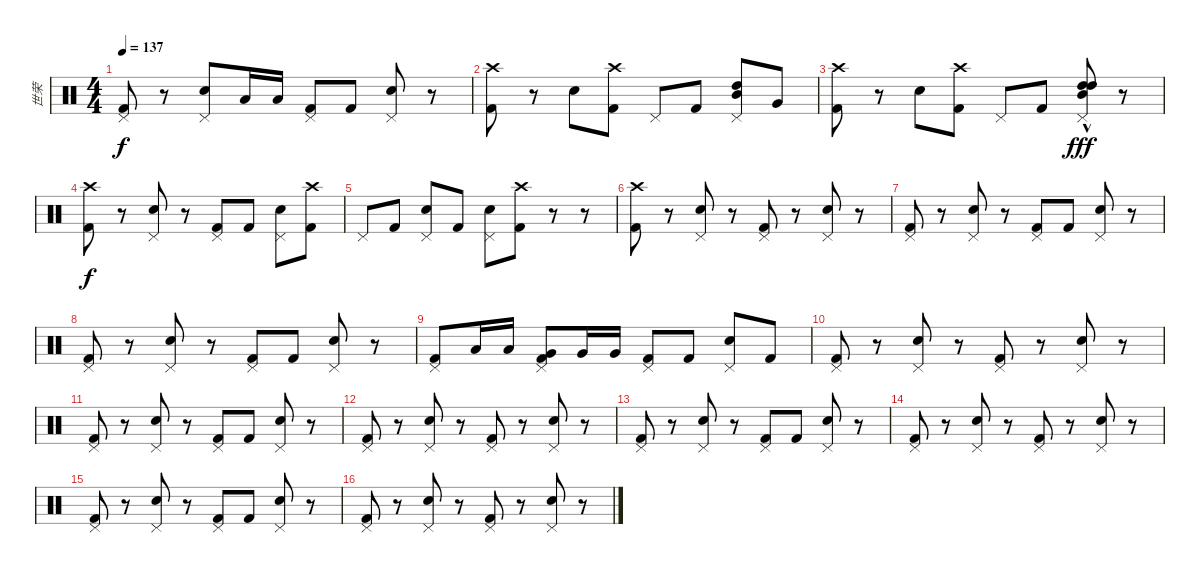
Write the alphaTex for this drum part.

\track ("世荣" "世荣") {instrument percussion}
\staff {score}
\articulation defaults
\ts (4 4)
\tempo 137
\clef neutral
\ks c
("Pedal Hi-Hat (hit)" "Kick (hit) 2").8{dy f} r.8 ("Pedal Hi-Hat (hit)" "Electric Snare (hit)").8 "Low Tom (hit)".16 "Low Tom (hit)".16 ("Pedal Hi-Hat (hit)" "Kick (hit) 2").8 "Kick (hit) 2".8 ("Pedal Hi-Hat (hit)" "Electric Snare (hit)").8 r.8 |
("Crash high (hit)" "Kick (hit) 2").8 r.8 "Electric Snare (hit)".8 ("Crash high (hit)" "Kick (hit) 2").8 "Pedal Hi-Hat (hit)".8 "Kick (hit) 2".8 ("Pedal Hi-Hat (hit)" "Mid Tom (hit)" "High Tom (hit)").8 "Very Low Tom (hit)".8 |
("Crash high (hit)" "Kick (hit) 2").8 r.8 "Electric Snare (hit)".8 ("Crash high (hit)" "Kick (hit) 2").8 "Pedal Hi-Hat (hit)".8 "Kick (hit) 2".8 ("Pedal Hi-Hat (hit)" "High Tom (hit)"{hac} "High Tom (hit)"{hac} "Mid Tom (hit)"{hac}).8{dy fff} r.8 |
("Crash high (hit)" "Kick (hit) 2").8{dy f} r.8 ("Pedal Hi-Hat (hit)" "Electric Snare (hit)").8 r.8 ("Pedal Hi-Hat (hit)" "Kick (hit) 2").8 "Kick (hit) 2".8 ("Pedal Hi-Hat (hit)" "Electric Snare (hit)").8 ("Crash high (hit)" "Kick (hit) 2").8 |
"Pedal Hi-Hat (hit)".8 "Kick (hit) 2".8 ("Pedal Hi-Hat (hit)" "Electric Snare (hit)").8 "Kick (hit) 2".8 ("Pedal Hi-Hat (hit)" "Electric Snare (hit)").8 ("Crash high (hit)" "Kick (hit) 2").8 r.8 r.8 |
("Crash high (hit)" "Kick (hit) 2").8 r.8 ("Pedal Hi-Hat (hit)" "Electric Snare (hit)").8 r.8 ("Pedal Hi-Hat (hit)" "Kick (hit) 2").8 r.8 ("Pedal Hi-Hat (hit)" "Electric Snare (hit)").8 r.8 |
("Pedal Hi-Hat (hit)" "Kick (hit) 2").8 r.8 ("Pedal Hi-Hat (hit)" "Electric Snare (hit)").8 r.8 ("Pedal Hi-Hat (hit)" "Kick (hit) 2").8 "Kick (hit) 2".8 ("Pedal Hi-Hat (hit)" "Electric Snare (hit)").8 r.8 |
("Pedal Hi-Hat (hit)" "Kick (hit) 2").8 r.8 ("Pedal Hi-Hat (hit)" "Electric Snare (hit)").8 r.8 ("Pedal Hi-Hat (hit)" "Kick (hit) 2").8 "Kick (hit) 2".8 ("Pedal Hi-Hat (hit)" "Electric Snare (hit)").8 r.8 |
("Pedal Hi-Hat (hit)" "Kick (hit) 2").8 "Low Tom (hit)".16 "Low Tom (hit)".16 ("Pedal Hi-Hat (hit)" "Very Low Tom (hit)" "Kick (hit) 2").8 "Very Low Tom (hit)".16 "Very Low Tom (hit)".16 ("Pedal Hi-Hat (hit)" "Kick (hit) 2").8 "Kick (hit) 2".8 ("Pedal Hi-Hat (hit)" "Electric Snare (hit)").8 "Kick (hit) 2".8 |
("Pedal Hi-Hat (hit)" "Kick (hit) 2").8 r.8 ("Pedal Hi-Hat (hit)" "Electric Snare (hit)").8 r.8 ("Pedal Hi-Hat (hit)" "Kick (hit) 2").8 r.8 ("Pedal Hi-Hat (hit)" "Electric Snare (hit)").8 r.8 |
("Pedal Hi-Hat (hit)" "Kick (hit) 2").8 r.8 ("Pedal Hi-Hat (hit)" "Electric Snare (hit)").8 r.8 ("Pedal Hi-Hat (hit)" "Kick (hit) 2").8 "Kick (hit) 2".8 ("Pedal Hi-Hat (hit)" "Electric Snare (hit)").8 r.8 |
("Pedal Hi-Hat (hit)" "Kick (hit) 2").8 r.8 ("Pedal Hi-Hat (hit)" "Electric Snare (hit)").8 r.8 ("Pedal Hi-Hat (hit)" "Kick (hit) 2").8 r.8 ("Pedal Hi-Hat (hit)" "Electric Snare (hit)").8 r.8 |
("Pedal Hi-Hat (hit)" "Kick (hit) 2").8 r.8 ("Pedal Hi-Hat (hit)" "Electric Snare (hit)").8 r.8 ("Pedal Hi-Hat (hit)" "Kick (hit) 2").8 "Kick (hit) 2".8 ("Pedal Hi-Hat (hit)" "Electric Snare (hit)").8 r.8 |
("Pedal Hi-Hat (hit)" "Kick (hit) 2").8 r.8 ("Pedal Hi-Hat (hit)" "Electric Snare (hit)").8 r.8 ("Pedal Hi-Hat (hit)" "Kick (hit) 2").8 r.8 ("Pedal Hi-Hat (hit)" "Electric Snare (hit)").8 r.8 |
("Pedal Hi-Hat (hit)" "Kick (hit) 2").8 r.8 ("Pedal Hi-Hat (hit)" "Electric Snare (hit)").8 r.8 ("Pedal Hi-Hat (hit)" "Kick (hit) 2").8 "Kick (hit) 2".8 ("Pedal Hi-Hat (hit)" "Electric Snare (hit)").8 r.8 |
("Pedal Hi-Hat (hit)" "Kick (hit) 2").8 r.8 ("Pedal Hi-Hat (hit)" "Electric Snare (hit)").8 r.8 ("Pedal Hi-Hat (hit)" "Kick (hit) 2").8 r.8 ("Pedal Hi-Hat (hit)" "Electric Snare (hit)").8 r.8
